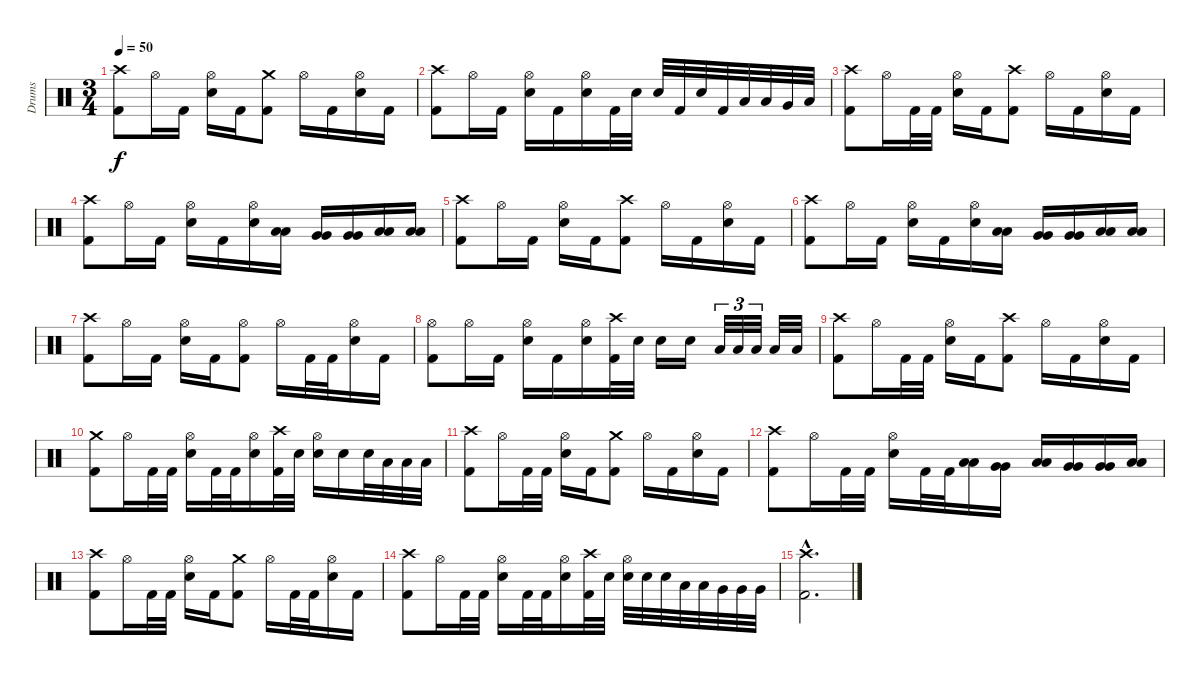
\track ("Drums" "Drums") {instrument percussion}
\staff {score}
\articulation defaults
\ts (3 4)
\tempo 50
\clef neutral
\ks c
("Crash high (hit)" "Kick (hit) 2").8{dy f} "Hi-Hat (open)".16 "Kick (hit) 2".16 ("Hi-Hat (open)" "Electric Snare (hit)").16 "Kick (hit) 2".16 ("Crash medium (hit)" "Kick (hit) 2").8 "Hi-Hat (open)".16 "Kick (hit) 2".16 ("Hi-Hat (open)" "Electric Snare (hit)").16 "Kick (hit) 2".16 |
("Crash high (hit)" "Kick (hit) 2").8 "Hi-Hat (open)".16 "Kick (hit) 2".16 ("Hi-Hat (open)" "Electric Snare (hit)").16 "Kick (hit) 2".16 ("Hi-Hat (open)" "Electric Snare (hit)").16 "Kick (hit) 2".32 "Electric Snare (hit)".32 "Electric Snare (hit)".32 "Kick (hit) 2".32 "Electric Snare (hit)".32 "Kick (hit) 2".32 "Low Tom (hit)".32 "Low Tom (hit)".32 "Very Low Tom (hit)".32 "Low Floor Tom (hit)".32 |
("Crash high (hit)" "Kick (hit) 2").8 "Hi-Hat (open)".16 "Kick (hit) 2".32 "Kick (hit) 2".32 ("Hi-Hat (open)" "Electric Snare (hit)").16 "Kick (hit) 2".16 ("Crash high (hit)" "Kick (hit) 2").8 "Hi-Hat (open)".16 "Kick (hit) 2".16 ("Hi-Hat (open)" "Electric Snare (hit)").16 "Kick (hit) 2".16 |
("Crash high (hit)" "Kick (hit) 2").8 "Hi-Hat (open)".16 "Kick (hit) 2".16 ("Hi-Hat (open)" "Electric Snare (hit)").16 "Kick (hit) 2".16 ("Hi-Hat (open)" "Electric Snare (hit)").16 ("Low Tom (hit)" "Low Tom (hit)").16{bu 60} ("Very Low Tom (hit)" "Very Low Tom (hit)").16{bu 60} ("Very Low Tom (hit)" "Very Low Tom (hit)").16{bu 60} ("Low Floor Tom (hit)" "Low Floor Tom (hit)").16{bu 60} ("Low Floor Tom (hit)" "Low Floor Tom (hit)").16{bu 60} |
("Crash high (hit)" "Kick (hit) 2").8 "Hi-Hat (open)".16 "Kick (hit) 2".16 ("Hi-Hat (open)" "Electric Snare (hit)").16 "Kick (hit) 2".16 ("Crash high (hit)" "Kick (hit) 2").8 "Hi-Hat (open)".16 "Kick (hit) 2".16 ("Hi-Hat (open)" "Electric Snare (hit)").16 "Kick (hit) 2".16 |
("Crash high (hit)" "Kick (hit) 2").8 "Hi-Hat (open)".16 "Kick (hit) 2".16 ("Hi-Hat (open)" "Electric Snare (hit)").16 "Kick (hit) 2".16 ("Hi-Hat (open)" "Electric Snare (hit)").16 ("Low Tom (hit)" "Low Tom (hit)").16{bu 60} ("Very Low Tom (hit)" "Very Low Tom (hit)").16{bu 60} ("Very Low Tom (hit)" "Very Low Tom (hit)").16{bu 60} ("Low Floor Tom (hit)" "Low Floor Tom (hit)").16{bu 60} ("Low Floor Tom (hit)" "Low Floor Tom (hit)").16{bu 60} |
("Crash high (hit)" "Kick (hit) 2").8 "Hi-Hat (open)".16 "Kick (hit) 2".16 ("Hi-Hat (open)" "Electric Snare (hit)").16 "Kick (hit) 2".16 ("Hi-Hat (open)" "Kick (hit) 2").8 "Hi-Hat (open)".16 "Kick (hit) 2".32 "Kick (hit) 2".32 ("Hi-Hat (open)" "Electric Snare (hit)").16 "Kick (hit) 2".16 |
("Hi-Hat (open)" "Kick (hit) 2").8 "Hi-Hat (open)".16 "Kick (hit) 2".16 ("Hi-Hat (open)" "Electric Snare (hit)").16 "Kick (hit) 2".16 ("Hi-Hat (open)" "Electric Snare (hit)").16 ("Crash high (hit)" "Kick (hit) 2").32 "Electric Snare (hit)".32 "Electric Snare (hit)".16 "Electric Snare (hit)".16 "Low Tom (hit)".32{tu (3 2)} "Low Tom (hit)".32{tu (3 2)} "Low Tom (hit)".32{tu (3 2)} "Low Tom (hit)".32 "Low Tom (hit)".32 |
("Crash high (hit)" "Kick (hit) 2").8 "Hi-Hat (open)".16 "Kick (hit) 2".32 "Kick (hit) 2".32 ("Hi-Hat (open)" "Electric Snare (hit)").16 "Kick (hit) 2".16 ("Crash high (hit)" "Kick (hit) 2").8 "Hi-Hat (open)".16 "Kick (hit) 2".16 ("Hi-Hat (open)" "Electric Snare (hit)").16 "Kick (hit) 2".16 |
("Crash medium (hit)" "Kick (hit) 2").8 "Hi-Hat (open)".16 "Kick (hit) 2".32 "Kick (hit) 2".32 ("Hi-Hat (open)" "Electric Snare (hit)").16 "Kick (hit) 2".32 "Kick (hit) 2".32 ("Hi-Hat (open)" "Electric Snare (hit)").16 ("Crash high (hit)" "Kick (hit) 2").32 "Electric Snare (hit)".32 ("Hi-Hat (open)" "Electric Snare (hit)").16 "Electric Snare (hit)".16 "Electric Snare (hit)".32 "Low Tom (hit)".32 "Low Tom (hit)".32 "Low Tom (hit)".32 |
("Crash high (hit)" "Kick (hit) 2").8 "Hi-Hat (open)".16 "Kick (hit) 2".32 "Kick (hit) 2".32 ("Hi-Hat (open)" "Electric Snare (hit)").16 "Kick (hit) 2".16 ("Crash medium (hit)" "Kick (hit) 2").8 "Hi-Hat (open)".16 "Kick (hit) 2".16 ("Hi-Hat (open)" "Electric Snare (hit)").16 "Kick (hit) 2".16 |
("Crash high (hit)" "Kick (hit) 2").8 "Hi-Hat (open)".16 "Kick (hit) 2".32 "Kick (hit) 2".32 ("Hi-Hat (open)" "Electric Snare (hit)").16 "Kick (hit) 2".32 "Kick (hit) 2".32 ("Low Tom (hit)" "Low Tom (hit)").16{bu 60} ("Very Low Tom (hit)" "Very Low Tom (hit)").16{bu 60} ("Low Tom (hit)" "Low Tom (hit)").16{bu 60} ("Very Low Tom (hit)" "Very Low Tom (hit)").16{bu 60} ("Very Low Tom (hit)" "Very Low Tom (hit)").16{bu 60} ("Low Floor Tom (hit)" "Low Floor Tom (hit)").16{bu 60} |
("Crash high (hit)" "Kick (hit) 2").8 "Hi-Hat (open)".16 "Kick (hit) 2".32 "Kick (hit) 2".32 ("Hi-Hat (open)" "Electric Snare (hit)").16 "Kick (hit) 2".16 ("Crash medium (hit)" "Kick (hit) 2").8 "Hi-Hat (open)".16 "Kick (hit) 2".32 "Kick (hit) 2".32 ("Hi-Hat (open)" "Electric Snare (hit)").16 "Kick (hit) 2".16 |
("Crash high (hit)" "Kick (hit) 2").8 "Hi-Hat (open)".16 "Kick (hit) 2".32 "Kick (hit) 2".32 ("Hi-Hat (open)" "Electric Snare (hit)").16 "Kick (hit) 2".32 "Kick (hit) 2".32 ("Hi-Hat (open)" "Electric Snare (hit)").16 ("Crash high (hit)" "Kick (hit) 2").32 "Electric Snare (hit)".32 ("Hi-Hat (open)" "Electric Snare (hit)").32 "Electric Snare (hit)".32 "Electric Snare (hit)".32 "Low Tom (hit)".32 "Low Tom (hit)".32 "Very Low Tom (hit)".32 "Very Low Tom (hit)".32 "Very Low Tom (hit)".32 |
("Crash high (hit)"{hac} "Kick (hit) 2"{hac}).2{d}
